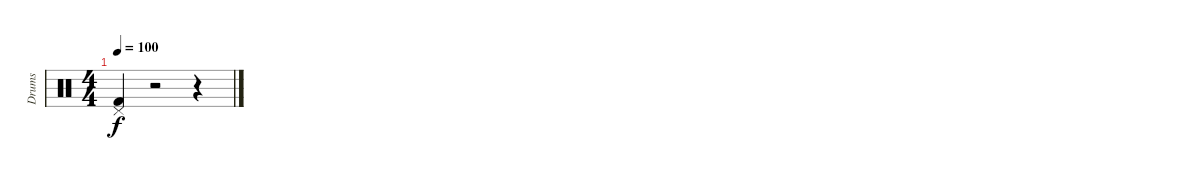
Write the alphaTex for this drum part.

\track ("Drums" "Drums") {instrument percussion}
\staff {score}
\articulation defaults
\ts (4 4)
\tempo 100
\clef neutral
\ks c
("Pedal Hi-Hat (hit)" "Kick (hit) 2").4{dy f} r.2 r.4
